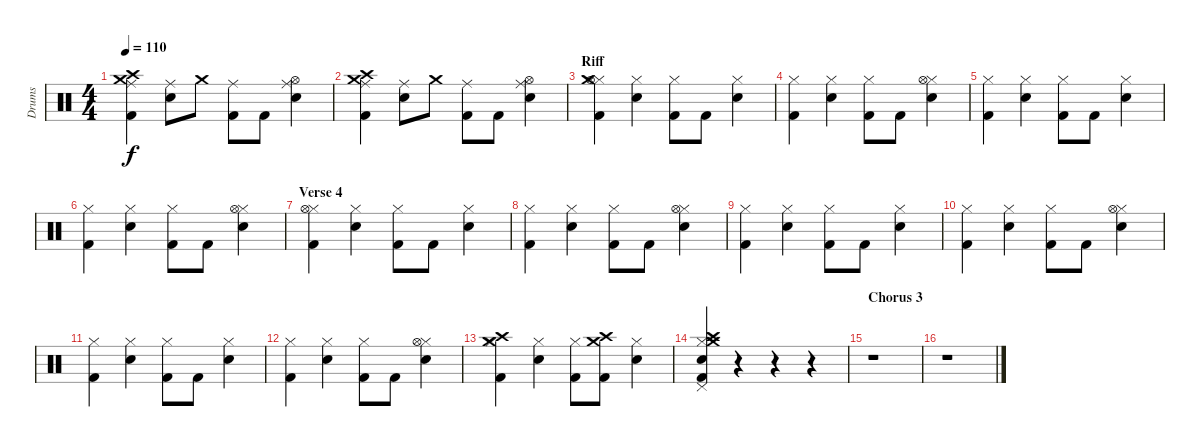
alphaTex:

\track ("Drums" "Drums") {instrument percussion}
\staff {score}
\articulation defaults
\ts (4 4)
\tempo 110
\clef neutral
\ks c
("Kick (hit) 2" "Ride (middle)" "Crash high (hit)" "Crash medium (hit)").4{dy f} ("Snare (hit) 2" "Ride (middle)").8 "Crash medium (hit)".8 ("Kick (hit) 2" "Ride (middle)").8 "Kick (hit) 2".8 ("Snare (hit) 2" "Ride (middle)" "Hi-Hat (open)").4 |
("Kick (hit) 2" "Ride (middle)" "Crash high (hit)" "Crash medium (hit)").4 ("Snare (hit) 2" "Ride (middle)").8 "Crash medium (hit)".8 ("Kick (hit) 2" "Ride (middle)").8 "Kick (hit) 2".8 ("Snare (hit) 2" "Ride (middle)" "Hi-Hat (open)").4 |
\section ("" "Riff")
("Kick (hit) 2" "Hi-Hat (closed)" "Crash medium (hit)" "Hi-Hat (open)").4 ("Snare (hit) 2" "Hi-Hat (closed)").4 ("Kick (hit) 2" "Hi-Hat (closed)").8 "Kick (hit) 2".8 ("Snare (hit) 2" "Hi-Hat (closed)").4 |
("Kick (hit) 2" "Hi-Hat (closed)").4 ("Snare (hit) 2" "Hi-Hat (closed)").4 ("Kick (hit) 2" "Hi-Hat (closed)").8 "Kick (hit) 2".8 ("Snare (hit) 2" "Hi-Hat (closed)" "Hi-Hat (open)").4 |
("Kick (hit) 2" "Hi-Hat (closed)").4 ("Snare (hit) 2" "Hi-Hat (closed)").4 ("Kick (hit) 2" "Hi-Hat (closed)").8 "Kick (hit) 2".8 ("Snare (hit) 2" "Hi-Hat (closed)").4 |
("Kick (hit) 2" "Hi-Hat (closed)").4 ("Snare (hit) 2" "Hi-Hat (closed)").4 ("Kick (hit) 2" "Hi-Hat (closed)").8 "Kick (hit) 2".8 ("Snare (hit) 2" "Hi-Hat (closed)" "Hi-Hat (open)").4 |
\section ("" "Verse 4")
("Kick (hit) 2" "Hi-Hat (closed)" "Hi-Hat (open)").4 ("Snare (hit) 2" "Hi-Hat (closed)").4 ("Kick (hit) 2" "Hi-Hat (closed)").8 "Kick (hit) 2".8 ("Snare (hit) 2" "Hi-Hat (closed)").4 |
("Kick (hit) 2" "Hi-Hat (closed)").4 ("Snare (hit) 2" "Hi-Hat (closed)").4 ("Kick (hit) 2" "Hi-Hat (closed)").8 "Kick (hit) 2".8 ("Snare (hit) 2" "Hi-Hat (closed)" "Hi-Hat (open)").4 |
("Kick (hit) 2" "Hi-Hat (closed)").4 ("Snare (hit) 2" "Hi-Hat (closed)").4 ("Kick (hit) 2" "Hi-Hat (closed)").8 "Kick (hit) 2".8 ("Snare (hit) 2" "Hi-Hat (closed)").4 |
("Kick (hit) 2" "Hi-Hat (closed)").4 ("Snare (hit) 2" "Hi-Hat (closed)").4 ("Kick (hit) 2" "Hi-Hat (closed)").8 "Kick (hit) 2".8 ("Snare (hit) 2" "Hi-Hat (closed)" "Hi-Hat (open)").4 |
("Kick (hit) 2" "Hi-Hat (closed)").4 ("Snare (hit) 2" "Hi-Hat (closed)").4 ("Kick (hit) 2" "Hi-Hat (closed)").8 "Kick (hit) 2".8 ("Snare (hit) 2" "Hi-Hat (closed)").4 |
("Kick (hit) 2" "Hi-Hat (closed)").4 ("Snare (hit) 2" "Hi-Hat (closed)").4 ("Kick (hit) 2" "Hi-Hat (closed)").8 "Kick (hit) 2".8 ("Snare (hit) 2" "Hi-Hat (closed)" "Hi-Hat (open)").4 |
("Kick (hit) 2" "Hi-Hat (closed)" "Crash medium (hit)" "Crash high (hit)").4 ("Snare (hit) 2" "Hi-Hat (closed)").4 ("Kick (hit) 2" "Hi-Hat (closed)").8 ("Kick (hit) 2" "Crash medium (hit)" "Crash high (hit)").8 ("Snare (hit) 2" "Hi-Hat (closed)").4 |
("Kick (hit) 2" "Snare (hit) 2" "Hi-Hat (closed)" "Crash high (hit)" "Crash medium (hit)" "Pedal Hi-Hat (hit)").4 r.4 r.4 r.4 |
\section ("" "Chorus 3")
r.1 |
r.1
